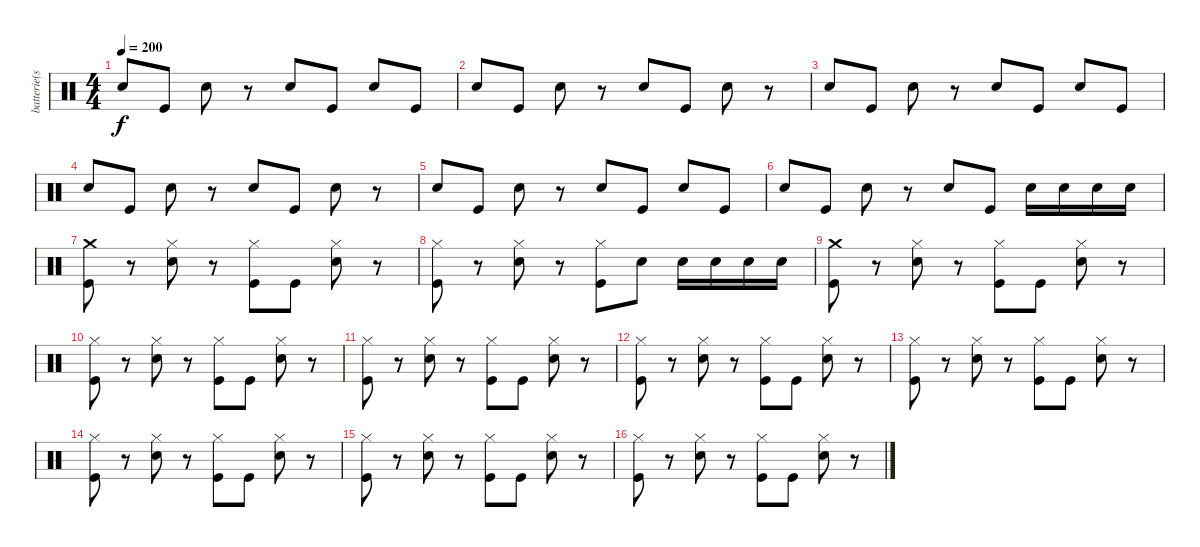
\track ("batterie(scott)" "batterie(s") {instrument percussion}
\staff {score}
\articulation defaults
\ts (4 4)
\tempo 200
\clef neutral
\ks c "Snare (hit) 2".8{dy f} "Kick (hit)".8 "Snare (hit) 2".8
r.8 "Snare (hit) 2".8 "Kick (hit)".8 "Snare (hit) 2".8 "Kick (hit)".8 |
"Snare (hit) 2".8 "Kick (hit)".8 "Snare (hit) 2".8 r.8 "Snare (hit) 2".8 "Kick (hit)".8 "Snare (hit) 2".8 r.8 |
"Snare (hit) 2".8 "Kick (hit)".8 "Snare (hit) 2".8 r.8 "Snare (hit) 2".8 "Kick (hit)".8 "Snare (hit) 2".8 "Kick (hit)".8 |
"Snare (hit) 2".8 "Kick (hit)".8 "Snare (hit) 2".8 r.8 "Snare (hit) 2".8 "Kick (hit)".8 "Snare (hit) 2".8 r.8 |
"Snare (hit) 2".8 "Kick (hit)".8 "Snare (hit) 2".8 r.8 "Snare (hit) 2".8 "Kick (hit)".8 "Snare (hit) 2".8 "Kick (hit)".8 |
"Snare (hit) 2".8 "Kick (hit)".8 "Snare (hit) 2".8 r.8 "Snare (hit) 2".8 "Kick (hit)".8 "Snare (hit) 2".16 "Snare (hit) 2".16 "Snare (hit) 2".16 "Snare (hit) 2".16 |
("Crash medium (hit)" "Kick (hit)").8 r.8 ("Hi-Hat (closed)" "Snare (hit) 2").8 r.8 ("Hi-Hat (closed)" "Kick (hit)").8 "Kick (hit)".8 ("Hi-Hat (closed)" "Snare (hit) 2").8 r.8 |
("Hi-Hat (closed)" "Kick (hit)").8 r.8 ("Hi-Hat (closed)" "Snare (hit) 2").8 r.8 ("Hi-Hat (closed)" "Kick (hit)").8 "Snare (hit) 2".8 "Snare (hit) 2".16 "Snare (hit) 2".16 "Snare (hit) 2".16 "Snare (hit) 2".16 |
("Crash medium (hit)" "Kick (hit)").8 r.8 ("Hi-Hat (closed)" "Snare (hit) 2").8 r.8 ("Hi-Hat (closed)" "Kick (hit)").8 "Kick (hit)".8 ("Hi-Hat (closed)" "Snare (hit) 2").8 r.8 |
("Hi-Hat (closed)" "Kick (hit)").8 r.8 ("Hi-Hat (closed)" "Snare (hit) 2").8 r.8 ("Hi-Hat (closed)" "Kick (hit)").8 "Kick (hit)".8 ("Hi-Hat (closed)" "Snare (hit) 2").8 r.8 |
("Hi-Hat (closed)" "Kick (hit)").8 r.8 ("Hi-Hat (closed)" "Snare (hit) 2").8 r.8 ("Hi-Hat (closed)" "Kick (hit)").8 "Kick (hit)".8 ("Hi-Hat (closed)" "Snare (hit) 2").8 r.8 |
("Hi-Hat (closed)" "Kick (hit)").8 r.8 ("Hi-Hat (closed)" "Snare (hit) 2").8 r.8 ("Hi-Hat (closed)" "Kick (hit)").8 "Kick (hit)".8 ("Hi-Hat (closed)" "Snare (hit) 2").8 r.8 |
("Hi-Hat (closed)" "Kick (hit)").8 r.8 ("Hi-Hat (closed)" "Snare (hit) 2").8 r.8 ("Hi-Hat (closed)" "Kick (hit)").8 "Kick (hit)".8 ("Hi-Hat (closed)" "Snare (hit) 2").8 r.8 |
("Hi-Hat (closed)" "Kick (hit)").8 r.8 ("Hi-Hat (closed)" "Snare (hit) 2").8 r.8 ("Hi-Hat (closed)" "Kick (hit)").8 "Kick (hit)".8 ("Hi-Hat (closed)" "Snare (hit) 2").8 r.8 |
("Hi-Hat (closed)" "Kick (hit)").8 r.8 ("Hi-Hat (closed)" "Snare (hit) 2").8 r.8 ("Hi-Hat (closed)" "Kick (hit)").8 "Kick (hit)".8 ("Hi-Hat (closed)" "Snare (hit) 2").8 r.8 |
("Hi-Hat (closed)" "Kick (hit)").8 r.8 ("Hi-Hat (closed)" "Snare (hit) 2").8 r.8 ("Hi-Hat (closed)" "Kick (hit)").8 "Kick (hit)".8 ("Hi-Hat (closed)" "Snare (hit) 2").8 r.8
